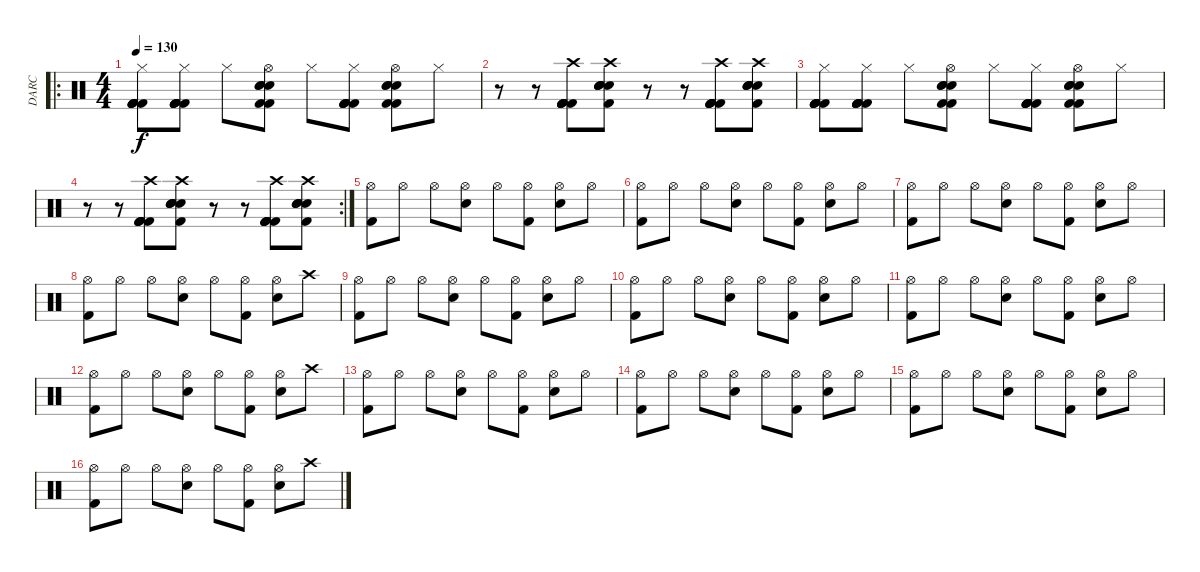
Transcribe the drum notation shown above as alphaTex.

\track ("DARC" "DARC") {instrument percussion}
\staff {score}
\articulation defaults
\ro
\ts (4 4)
\tempo 130
\clef neutral
\ks c
("Kick (hit) 2" "Kick (hit) 2" "Kick (hit) 2" "Kick (hit) 2" "Kick (hit) 2" "Hi-Hat (closed)").8{dy f} ("Kick (hit) 2" "Kick (hit) 2" "Kick (hit) 2" "Kick (hit) 2" "Kick (hit) 2" "Hi-Hat (closed)").8 "Hi-Hat (closed)".8 ("Kick (hit) 2" "Kick (hit) 2" "Electric Snare (hit)" "Electric Snare (hit)" "Electric Snare (hit)" "Hi-Hat (open)").8 "Hi-Hat (closed)".8 ("Kick (hit) 2" "Kick (hit) 2" "Kick (hit) 2" "Kick (hit) 2" "Kick (hit) 2" "Hi-Hat (closed)").8 ("Kick (hit) 2" "Kick (hit) 2" "Electric Snare (hit)" "Electric Snare (hit)" "Electric Snare (hit)" "Hi-Hat (open)").8 "Hi-Hat (closed)".8 |
r.8 r.8 ("Kick (hit) 2" "Kick (hit) 2" "Kick (hit) 2" "Kick (hit) 2" "Kick (hit) 2" "Crash high (hit)").8 ("Electric Snare (hit)" "Electric Snare (hit)" "Electric Snare (hit)" "Electric Snare (hit)" "Kick (hit) 2" "Crash high (hit)").8 r.8 r.8 ("Kick (hit) 2" "Kick (hit) 2" "Kick (hit) 2" "Kick (hit) 2" "Kick (hit) 2" "Crash high (hit)").8 ("Electric Snare (hit)" "Electric Snare (hit)" "Electric Snare (hit)" "Electric Snare (hit)" "Kick (hit) 2" "Crash high (hit)").8 |
("Kick (hit) 2" "Kick (hit) 2" "Kick (hit) 2" "Kick (hit) 2" "Kick (hit) 2" "Hi-Hat (closed)").8 ("Kick (hit) 2" "Kick (hit) 2" "Kick (hit) 2" "Kick (hit) 2" "Kick (hit) 2" "Hi-Hat (closed)").8 "Hi-Hat (closed)".8 ("Kick (hit) 2" "Kick (hit) 2" "Electric Snare (hit)" "Electric Snare (hit)" "Electric Snare (hit)" "Hi-Hat (open)").8 "Hi-Hat (closed)".8 ("Kick (hit) 2" "Kick (hit) 2" "Kick (hit) 2" "Kick (hit) 2" "Kick (hit) 2" "Hi-Hat (closed)").8 ("Kick (hit) 2" "Kick (hit) 2" "Electric Snare (hit)" "Electric Snare (hit)" "Electric Snare (hit)" "Hi-Hat (open)").8 "Hi-Hat (closed)".8 |
\rc 2
r.8 r.8 ("Kick (hit) 2" "Kick (hit) 2" "Kick (hit) 2" "Kick (hit) 2" "Kick (hit) 2" "Crash high (hit)").8 ("Electric Snare (hit)" "Electric Snare (hit)" "Electric Snare (hit)" "Electric Snare (hit)" "Kick (hit) 2" "Crash high (hit)").8 r.8 r.8 ("Kick (hit) 2" "Kick (hit) 2" "Kick (hit) 2" "Kick (hit) 2" "Kick (hit) 2" "Crash high (hit)").8 ("Electric Snare (hit)" "Electric Snare (hit)" "Electric Snare (hit)" "Electric Snare (hit)" "Kick (hit) 2" "Crash high (hit)").8 |
("Kick (hit) 2" "Hi-Hat (open)").8 "Hi-Hat (open)".8 "Hi-Hat (open)".8 ("Snare (hit) 2" "Hi-Hat (open)").8 "Hi-Hat (open)".8 ("Kick (hit) 2" "Hi-Hat (open)").8 ("Snare (hit) 2" "Hi-Hat (open)").8 "Hi-Hat (open)".8 |
("Kick (hit) 2" "Hi-Hat (open)").8 "Hi-Hat (open)".8 "Hi-Hat (open)".8 ("Snare (hit) 2" "Hi-Hat (open)").8 "Hi-Hat (open)".8 ("Kick (hit) 2" "Hi-Hat (open)").8 ("Snare (hit) 2" "Hi-Hat (open)").8 "Hi-Hat (open)".8 |
("Kick (hit) 2" "Hi-Hat (open)").8 "Hi-Hat (open)".8 "Hi-Hat (open)".8 ("Snare (hit) 2" "Hi-Hat (open)").8 "Hi-Hat (open)".8 ("Kick (hit) 2" "Hi-Hat (open)").8 ("Snare (hit) 2" "Hi-Hat (open)").8 "Hi-Hat (open)".8 |
("Kick (hit) 2" "Hi-Hat (open)").8 "Hi-Hat (open)".8 "Hi-Hat (open)".8 ("Snare (hit) 2" "Hi-Hat (open)").8 "Hi-Hat (open)".8 ("Kick (hit) 2" "Hi-Hat (open)").8 ("Snare (hit) 2" "Hi-Hat (open)").8 "Crash high (hit)".8 |
("Kick (hit) 2" "Hi-Hat (open)").8 "Hi-Hat (open)".8 "Hi-Hat (open)".8 ("Snare (hit) 2" "Hi-Hat (open)").8 "Hi-Hat (open)".8 ("Kick (hit) 2" "Hi-Hat (open)").8 ("Snare (hit) 2" "Hi-Hat (open)").8 "Hi-Hat (open)".8 |
("Kick (hit) 2" "Hi-Hat (open)").8 "Hi-Hat (open)".8 "Hi-Hat (open)".8 ("Snare (hit) 2" "Hi-Hat (open)").8 "Hi-Hat (open)".8 ("Kick (hit) 2" "Hi-Hat (open)").8 ("Snare (hit) 2" "Hi-Hat (open)").8 "Hi-Hat (open)".8 |
("Kick (hit) 2" "Hi-Hat (open)").8 "Hi-Hat (open)".8 "Hi-Hat (open)".8 ("Snare (hit) 2" "Hi-Hat (open)").8 "Hi-Hat (open)".8 ("Kick (hit) 2" "Hi-Hat (open)").8 ("Snare (hit) 2" "Hi-Hat (open)").8 "Hi-Hat (open)".8 |
("Kick (hit) 2" "Hi-Hat (open)").8 "Hi-Hat (open)".8 "Hi-Hat (open)".8 ("Snare (hit) 2" "Hi-Hat (open)").8 "Hi-Hat (open)".8 ("Kick (hit) 2" "Hi-Hat (open)").8 ("Snare (hit) 2" "Hi-Hat (open)").8 "Crash high (hit)".8 |
("Kick (hit) 2" "Hi-Hat (open)").8 "Hi-Hat (open)".8 "Hi-Hat (open)".8 ("Snare (hit) 2" "Hi-Hat (open)").8 "Hi-Hat (open)".8 ("Kick (hit) 2" "Hi-Hat (open)").8 ("Snare (hit) 2" "Hi-Hat (open)").8 "Hi-Hat (open)".8 |
("Kick (hit) 2" "Hi-Hat (open)").8 "Hi-Hat (open)".8 "Hi-Hat (open)".8 ("Snare (hit) 2" "Hi-Hat (open)").8 "Hi-Hat (open)".8 ("Kick (hit) 2" "Hi-Hat (open)").8 ("Snare (hit) 2" "Hi-Hat (open)").8 "Hi-Hat (open)".8 |
("Kick (hit) 2" "Hi-Hat (open)").8 "Hi-Hat (open)".8 "Hi-Hat (open)".8 ("Snare (hit) 2" "Hi-Hat (open)").8 "Hi-Hat (open)".8 ("Kick (hit) 2" "Hi-Hat (open)").8 ("Snare (hit) 2" "Hi-Hat (open)").8 "Hi-Hat (open)".8 |
("Kick (hit) 2" "Hi-Hat (open)").8 "Hi-Hat (open)".8 "Hi-Hat (open)".8 ("Snare (hit) 2" "Hi-Hat (open)").8 "Hi-Hat (open)".8 ("Kick (hit) 2" "Hi-Hat (open)").8 ("Snare (hit) 2" "Hi-Hat (open)").8 "Crash high (hit)".8
